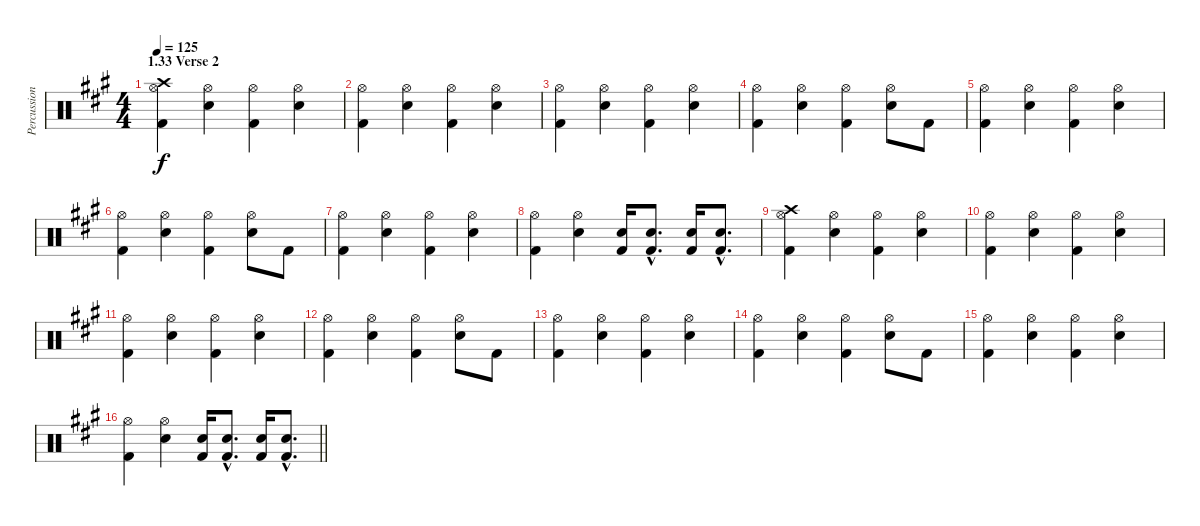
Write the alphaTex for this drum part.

\track ("Percussion" "Percussion") {instrument percussion}
\staff {score}
\articulation defaults
\ts (4 4)
\section ("" "1.33 Verse 2")
\tempo 125
\clef neutral
\ks f#minor
("Crash high (hit)" "Hi-Hat (open)" "Kick (hit) 2").4{dy f} ("Hi-Hat (open)" "Electric Snare (hit)").4 ("Hi-Hat (open)" "Kick (hit) 2").4 ("Hi-Hat (open)" "Electric Snare (hit)").4 |
("Hi-Hat (open)" "Kick (hit) 2").4 ("Hi-Hat (open)" "Electric Snare (hit)").4 ("Hi-Hat (open)" "Kick (hit) 2").4 ("Hi-Hat (open)" "Electric Snare (hit)").4 |
("Hi-Hat (open)" "Kick (hit) 2").4 ("Hi-Hat (open)" "Electric Snare (hit)").4 ("Hi-Hat (open)" "Kick (hit) 2").4 ("Hi-Hat (open)" "Electric Snare (hit)").4 |
("Hi-Hat (open)" "Kick (hit) 2").4 ("Hi-Hat (open)" "Electric Snare (hit)").4 ("Hi-Hat (open)" "Kick (hit) 2").4 ("Hi-Hat (open)" "Electric Snare (hit)").8 "Kick (hit) 2".8 |
("Hi-Hat (open)" "Kick (hit) 2").4 ("Hi-Hat (open)" "Electric Snare (hit)").4 ("Hi-Hat (open)" "Kick (hit) 2").4 ("Hi-Hat (open)" "Electric Snare (hit)").4 |
("Hi-Hat (open)" "Kick (hit) 2").4 ("Hi-Hat (open)" "Electric Snare (hit)").4 ("Hi-Hat (open)" "Kick (hit) 2").4 ("Hi-Hat (open)" "Electric Snare (hit)").8 "Kick (hit) 2".8 |
("Hi-Hat (open)" "Kick (hit) 2").4 ("Hi-Hat (open)" "Electric Snare (hit)").4 ("Hi-Hat (open)" "Kick (hit) 2").4 ("Hi-Hat (open)" "Electric Snare (hit)").4 |
("Hi-Hat (open)" "Kick (hit) 2").4 ("Hi-Hat (open)" "Electric Snare (hit)").4 ("Electric Snare (hit)" "Kick (hit) 2").16 ("Electric Snare (hit)"{hac} "Kick (hit) 2"{hac}).8{d} ("Electric Snare (hit)" "Kick (hit) 2").16 ("Electric Snare (hit)"{hac} "Kick (hit) 2"{hac}).8{d} |
("Crash high (hit)" "Hi-Hat (open)" "Kick (hit) 2").4 ("Hi-Hat (open)" "Electric Snare (hit)").4 ("Hi-Hat (open)" "Kick (hit) 2").4 ("Hi-Hat (open)" "Electric Snare (hit)").4 |
("Hi-Hat (open)" "Kick (hit) 2").4 ("Hi-Hat (open)" "Electric Snare (hit)").4 ("Hi-Hat (open)" "Kick (hit) 2").4 ("Hi-Hat (open)" "Electric Snare (hit)").4 |
("Hi-Hat (open)" "Kick (hit) 2").4 ("Hi-Hat (open)" "Electric Snare (hit)").4 ("Hi-Hat (open)" "Kick (hit) 2").4 ("Hi-Hat (open)" "Electric Snare (hit)").4 |
("Hi-Hat (open)" "Kick (hit) 2").4 ("Hi-Hat (open)" "Electric Snare (hit)").4 ("Hi-Hat (open)" "Kick (hit) 2").4 ("Hi-Hat (open)" "Electric Snare (hit)").8 "Kick (hit) 2".8 |
("Hi-Hat (open)" "Kick (hit) 2").4 ("Hi-Hat (open)" "Electric Snare (hit)").4 ("Hi-Hat (open)" "Kick (hit) 2").4 ("Hi-Hat (open)" "Electric Snare (hit)").4 |
("Hi-Hat (open)" "Kick (hit) 2").4 ("Hi-Hat (open)" "Electric Snare (hit)").4 ("Hi-Hat (open)" "Kick (hit) 2").4 ("Hi-Hat (open)" "Electric Snare (hit)").8 "Kick (hit) 2".8 |
("Hi-Hat (open)" "Kick (hit) 2").4 ("Hi-Hat (open)" "Electric Snare (hit)").4 ("Hi-Hat (open)" "Kick (hit) 2").4 ("Hi-Hat (open)" "Electric Snare (hit)").4 |
\barLineRight lightlight
("Hi-Hat (open)" "Kick (hit) 2").4 ("Hi-Hat (open)" "Electric Snare (hit)").4 ("Electric Snare (hit)" "Kick (hit) 2").16 ("Electric Snare (hit)"{hac} "Kick (hit) 2"{hac}).8{d} ("Electric Snare (hit)" "Kick (hit) 2").16 ("Electric Snare (hit)"{hac} "Kick (hit) 2"{hac}).8{d}
